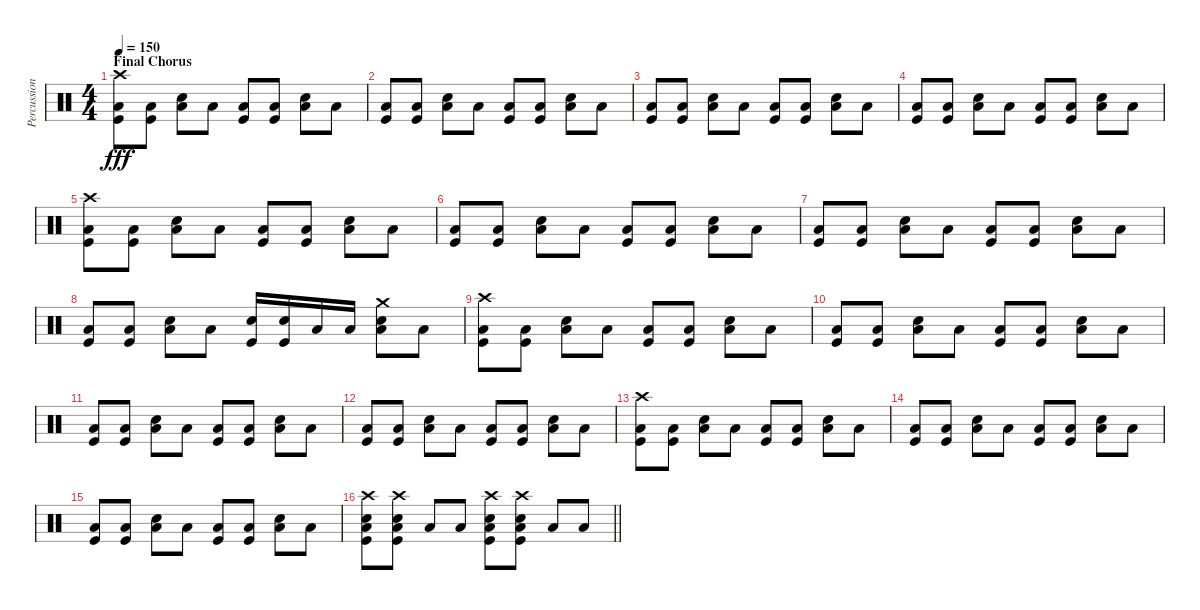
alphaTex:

\track ("Percussion" "Percussion") {instrument percussion}
\staff {score}
\articulation defaults
\ts (4 4)
\section ("" "Final Chorus")
\tempo 150
\clef neutral
\ks c
("Crash high (hit)" "Low Floor Tom (hit)" "Kick (hit)").8{dy fff} ("Low Floor Tom (hit)" "Kick (hit)").8 ("Low Floor Tom (hit)" "Snare (hit) 2").8 "Low Floor Tom (hit)".8 ("Low Floor Tom (hit)" "Kick (hit)").8 ("Low Floor Tom (hit)" "Kick (hit)").8 ("Low Floor Tom (hit)" "Snare (hit) 2").8 "Low Floor Tom (hit)".8 |
("Low Floor Tom (hit)" "Kick (hit)").8 ("Low Floor Tom (hit)" "Kick (hit)").8 ("Low Floor Tom (hit)" "Snare (hit) 2").8 "Low Floor Tom (hit)".8 ("Low Floor Tom (hit)" "Kick (hit)").8 ("Low Floor Tom (hit)" "Kick (hit)").8 ("Low Floor Tom (hit)" "Snare (hit) 2").8 "Low Floor Tom (hit)".8 |
("Low Floor Tom (hit)" "Kick (hit)").8 ("Low Floor Tom (hit)" "Kick (hit)").8 ("Low Floor Tom (hit)" "Snare (hit) 2").8 "Low Floor Tom (hit)".8 ("Low Floor Tom (hit)" "Kick (hit)").8 ("Low Floor Tom (hit)" "Kick (hit)").8 ("Low Floor Tom (hit)" "Snare (hit) 2").8 "Low Floor Tom (hit)".8 |
("Low Floor Tom (hit)" "Kick (hit)").8 ("Low Floor Tom (hit)" "Kick (hit)").8 ("Low Floor Tom (hit)" "Snare (hit) 2").8 "Low Floor Tom (hit)".8 ("Low Floor Tom (hit)" "Kick (hit)").8 ("Low Floor Tom (hit)" "Kick (hit)").8 ("Low Floor Tom (hit)" "Snare (hit) 2").8 "Low Floor Tom (hit)".8 |
("Crash high (hit)" "Low Floor Tom (hit)" "Kick (hit)").8 ("Low Floor Tom (hit)" "Kick (hit)").8 ("Low Floor Tom (hit)" "Snare (hit) 2").8 "Low Floor Tom (hit)".8 ("Low Floor Tom (hit)" "Kick (hit)").8 ("Low Floor Tom (hit)" "Kick (hit)").8 ("Low Floor Tom (hit)" "Snare (hit) 2").8 "Low Floor Tom (hit)".8 |
("Low Floor Tom (hit)" "Kick (hit)").8 ("Low Floor Tom (hit)" "Kick (hit)").8 ("Low Floor Tom (hit)" "Snare (hit) 2").8 "Low Floor Tom (hit)".8 ("Low Floor Tom (hit)" "Kick (hit)").8 ("Low Floor Tom (hit)" "Kick (hit)").8 ("Low Floor Tom (hit)" "Snare (hit) 2").8 "Low Floor Tom (hit)".8 |
("Low Floor Tom (hit)" "Kick (hit)").8 ("Low Floor Tom (hit)" "Kick (hit)").8 ("Low Floor Tom (hit)" "Snare (hit) 2").8 "Low Floor Tom (hit)".8 ("Low Floor Tom (hit)" "Kick (hit)").8 ("Low Floor Tom (hit)" "Kick (hit)").8 ("Low Floor Tom (hit)" "Snare (hit) 2").8 "Low Floor Tom (hit)".8 |
("Low Floor Tom (hit)" "Kick (hit)").8 ("Low Floor Tom (hit)" "Kick (hit)").8 ("Low Floor Tom (hit)" "Snare (hit) 2").8 "Low Floor Tom (hit)".8 ("Snare (hit) 2" "Kick (hit)").16 ("Snare (hit) 2" "Kick (hit)").16 "Low Tom (hit)".16 "Low Tom (hit)".16 ("Crash medium (hit)" "Low Floor Tom (hit)" "Snare (hit) 2").8 "Low Floor Tom (hit)".8 |
("Crash high (hit)" "Low Floor Tom (hit)" "Kick (hit)").8 ("Low Floor Tom (hit)" "Kick (hit)").8 ("Low Floor Tom (hit)" "Snare (hit) 2").8 "Low Floor Tom (hit)".8 ("Low Floor Tom (hit)" "Kick (hit)").8 ("Low Floor Tom (hit)" "Kick (hit)").8 ("Low Floor Tom (hit)" "Snare (hit) 2").8 "Low Floor Tom (hit)".8 |
("Low Floor Tom (hit)" "Kick (hit)").8 ("Low Floor Tom (hit)" "Kick (hit)").8 ("Low Floor Tom (hit)" "Snare (hit) 2").8 "Low Floor Tom (hit)".8 ("Low Floor Tom (hit)" "Kick (hit)").8 ("Low Floor Tom (hit)" "Kick (hit)").8 ("Low Floor Tom (hit)" "Snare (hit) 2").8 "Low Floor Tom (hit)".8 |
("Low Floor Tom (hit)" "Kick (hit)").8 ("Low Floor Tom (hit)" "Kick (hit)").8 ("Low Floor Tom (hit)" "Snare (hit) 2").8 "Low Floor Tom (hit)".8 ("Low Floor Tom (hit)" "Kick (hit)").8 ("Low Floor Tom (hit)" "Kick (hit)").8 ("Low Floor Tom (hit)" "Snare (hit) 2").8 "Low Floor Tom (hit)".8 |
("Low Floor Tom (hit)" "Kick (hit)").8 ("Low Floor Tom (hit)" "Kick (hit)").8 ("Low Floor Tom (hit)" "Snare (hit) 2").8 "Low Floor Tom (hit)".8 ("Low Floor Tom (hit)" "Kick (hit)").8 ("Low Floor Tom (hit)" "Kick (hit)").8 ("Low Floor Tom (hit)" "Snare (hit) 2").8 "Low Floor Tom (hit)".8 |
("Crash high (hit)" "Low Floor Tom (hit)" "Kick (hit)").8 ("Low Floor Tom (hit)" "Kick (hit)").8 ("Low Floor Tom (hit)" "Snare (hit) 2").8 "Low Floor Tom (hit)".8 ("Low Floor Tom (hit)" "Kick (hit)").8 ("Low Floor Tom (hit)" "Kick (hit)").8 ("Low Floor Tom (hit)" "Snare (hit) 2").8 "Low Floor Tom (hit)".8 |
("Low Floor Tom (hit)" "Kick (hit)").8 ("Low Floor Tom (hit)" "Kick (hit)").8 ("Low Floor Tom (hit)" "Snare (hit) 2").8 "Low Floor Tom (hit)".8 ("Low Floor Tom (hit)" "Kick (hit)").8 ("Low Floor Tom (hit)" "Kick (hit)").8 ("Low Floor Tom (hit)" "Snare (hit) 2").8 "Low Floor Tom (hit)".8 |
("Low Floor Tom (hit)" "Kick (hit)").8 ("Low Floor Tom (hit)" "Kick (hit)").8 ("Low Floor Tom (hit)" "Snare (hit) 2").8 "Low Floor Tom (hit)".8 ("Low Floor Tom (hit)" "Kick (hit)").8 ("Low Floor Tom (hit)" "Kick (hit)").8 ("Low Floor Tom (hit)" "Snare (hit) 2").8 "Low Floor Tom (hit)".8 |
\barLineRight lightlight
("Crash high (hit)" "Low Floor Tom (hit)" "Snare (hit) 2" "Kick (hit)").8 ("Crash high (hit)" "Low Floor Tom (hit)" "Snare (hit) 2" "Kick (hit)").8 "Low Floor Tom (hit)".8 "Low Floor Tom (hit)".8 ("Crash high (hit)" "Low Floor Tom (hit)" "Snare (hit) 2" "Kick (hit)").8 ("Crash high (hit)" "Low Floor Tom (hit)" "Snare (hit) 2" "Kick (hit)").8 "Low Floor Tom (hit)".8 "Low Floor Tom (hit)".8
